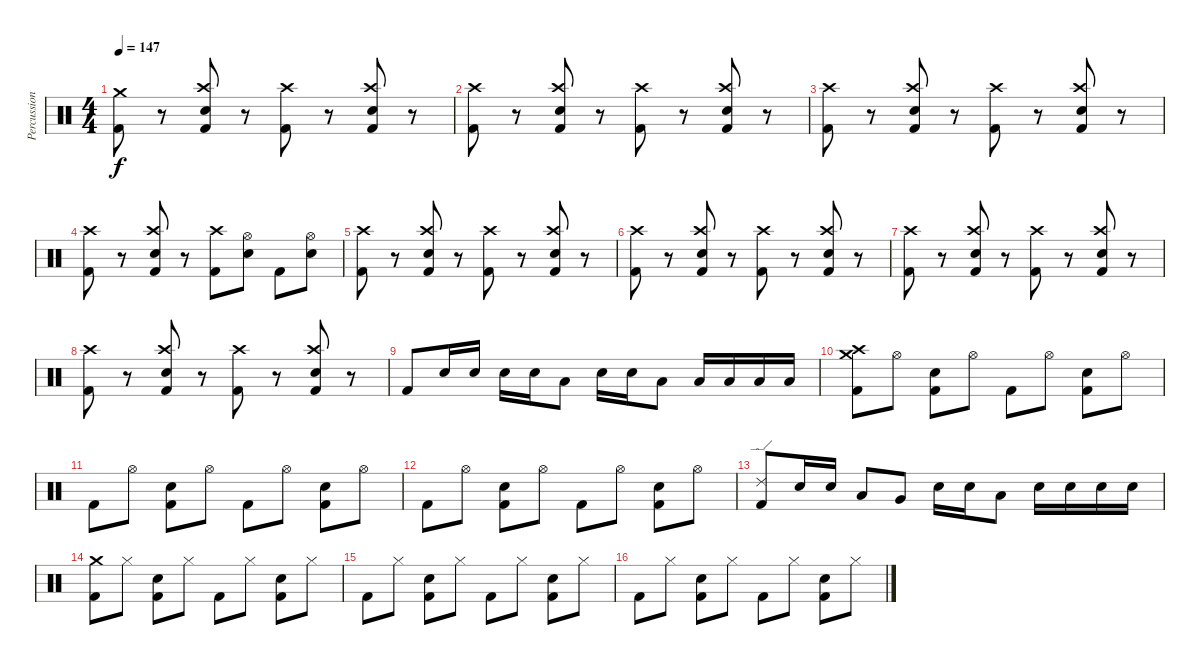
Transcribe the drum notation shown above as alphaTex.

\track ("Percussion" "Percussion") {instrument percussion}
\staff {score}
\articulation defaults
\ts (4 4)
\tempo 147
\clef neutral
\ks c
("Crash medium (hit)" "Kick (hit) 2").8{dy f} r.8 ("Crash high (hit)" "Kick (hit) 2" "Electric Snare (hit)").8 r.8 ("Crash high (hit)" "Kick (hit) 2").8 r.8 ("Crash high (hit)" "Kick (hit) 2" "Electric Snare (hit)").8 r.8 |
("Crash high (hit)" "Kick (hit) 2").8 r.8 ("Crash high (hit)" "Kick (hit) 2" "Electric Snare (hit)").8 r.8 ("Crash high (hit)" "Kick (hit) 2").8 r.8 ("Crash high (hit)" "Kick (hit) 2" "Electric Snare (hit)").8 r.8 |
("Crash high (hit)" "Kick (hit) 2").8 r.8 ("Crash high (hit)" "Kick (hit) 2" "Electric Snare (hit)").8 r.8 ("Crash high (hit)" "Kick (hit) 2").8 r.8 ("Crash high (hit)" "Kick (hit) 2" "Electric Snare (hit)").8 r.8 |
("Crash high (hit)" "Kick (hit) 2").8 r.8 ("Crash high (hit)" "Kick (hit) 2" "Electric Snare (hit)").8 r.8 ("Crash high (hit)" "Kick (hit) 2").8 ("Hi-Hat (open)" "Electric Snare (hit)").8 "Kick (hit) 2".8 ("Hi-Hat (open)" "Electric Snare (hit)").8 |
("Crash high (hit)" "Kick (hit) 2").8 r.8 ("Crash high (hit)" "Kick (hit) 2" "Electric Snare (hit)").8 r.8 ("Crash high (hit)" "Kick (hit) 2").8 r.8 ("Crash high (hit)" "Kick (hit) 2" "Electric Snare (hit)").8 r.8 |
("Crash high (hit)" "Kick (hit) 2").8 r.8 ("Crash high (hit)" "Kick (hit) 2" "Electric Snare (hit)").8 r.8 ("Crash high (hit)" "Kick (hit) 2").8 r.8 ("Crash high (hit)" "Kick (hit) 2" "Electric Snare (hit)").8 r.8 |
("Crash high (hit)" "Kick (hit) 2").8 r.8 ("Crash high (hit)" "Kick (hit) 2" "Electric Snare (hit)").8 r.8 ("Crash high (hit)" "Kick (hit) 2").8 r.8 ("Crash high (hit)" "Kick (hit) 2" "Electric Snare (hit)").8 r.8 |
("Crash high (hit)" "Kick (hit) 2").8 r.8 ("Crash high (hit)" "Kick (hit) 2" "Electric Snare (hit)").8 r.8 ("Crash high (hit)" "Kick (hit) 2").8 r.8 ("Crash high (hit)" "Kick (hit) 2" "Electric Snare (hit)").8 r.8 |
"Kick (hit) 2".8 "Electric Snare (hit)".16 "Electric Snare (hit)".16 "Electric Snare (hit)".16 "Electric Snare (hit)".16 "Low Tom (hit)".8 "Electric Snare (hit)".16 "Electric Snare (hit)".16 "Low Tom (hit)".8 "Low Tom (hit)".16 "Low Tom (hit)".16 "Low Tom (hit)".16 "Low Tom (hit)".16 |
("Crash medium (hit)" "Kick (hit) 2" "Crash high (hit)").8 "Hi-Hat (open)".8 ("Electric Snare (hit)" "Kick (hit) 2").8 "Hi-Hat (open)".8 "Kick (hit) 2".8 "Hi-Hat (open)".8 ("Electric Snare (hit)" "Kick (hit) 2").8 "Hi-Hat (open)".8 |
"Kick (hit) 2".8 "Hi-Hat (open)".8 ("Electric Snare (hit)" "Kick (hit) 2").8 "Hi-Hat (open)".8 "Kick (hit) 2".8 "Hi-Hat (open)".8 ("Electric Snare (hit)" "Kick (hit) 2").8 "Hi-Hat (open)".8 |
"Kick (hit) 2".8 "Hi-Hat (open)".8 ("Electric Snare (hit)" "Kick (hit) 2").8 "Hi-Hat (open)".8 "Kick (hit) 2".8 "Hi-Hat (open)".8 ("Electric Snare (hit)" "Kick (hit) 2").8 "Hi-Hat (open)".8 |
("Ride (edge) 2" "Kick (hit) 2").8 "Electric Snare (hit)".16 "Electric Snare (hit)".16 "Low Tom (hit)".8 "Very Low Tom (hit)".8 "Electric Snare (hit)".16 "Electric Snare (hit)".16 "Low Tom (hit)".8 "Electric Snare (hit)".16 "Electric Snare (hit)".16 "Electric Snare (hit)".16 "Electric Snare (hit)".16 |
("Crash medium (hit)" "Kick (hit) 2").8 "Hi-Hat (closed)".8 ("Kick (hit) 2" "Electric Snare (hit)").8 "Hi-Hat (closed)".8 "Kick (hit) 2".8 "Hi-Hat (closed)".8 ("Kick (hit) 2" "Electric Snare (hit)").8 "Hi-Hat (closed)".8 |
"Kick (hit) 2".8 "Hi-Hat (closed)".8 ("Kick (hit) 2" "Electric Snare (hit)").8 "Hi-Hat (closed)".8 "Kick (hit) 2".8 "Hi-Hat (closed)".8 ("Kick (hit) 2" "Electric Snare (hit)").8 "Hi-Hat (closed)".8 |
"Kick (hit) 2".8 "Hi-Hat (closed)".8 ("Kick (hit) 2" "Electric Snare (hit)").8 "Hi-Hat (closed)".8 "Kick (hit) 2".8 "Hi-Hat (closed)".8 ("Kick (hit) 2" "Electric Snare (hit)").8 "Hi-Hat (closed)".8
